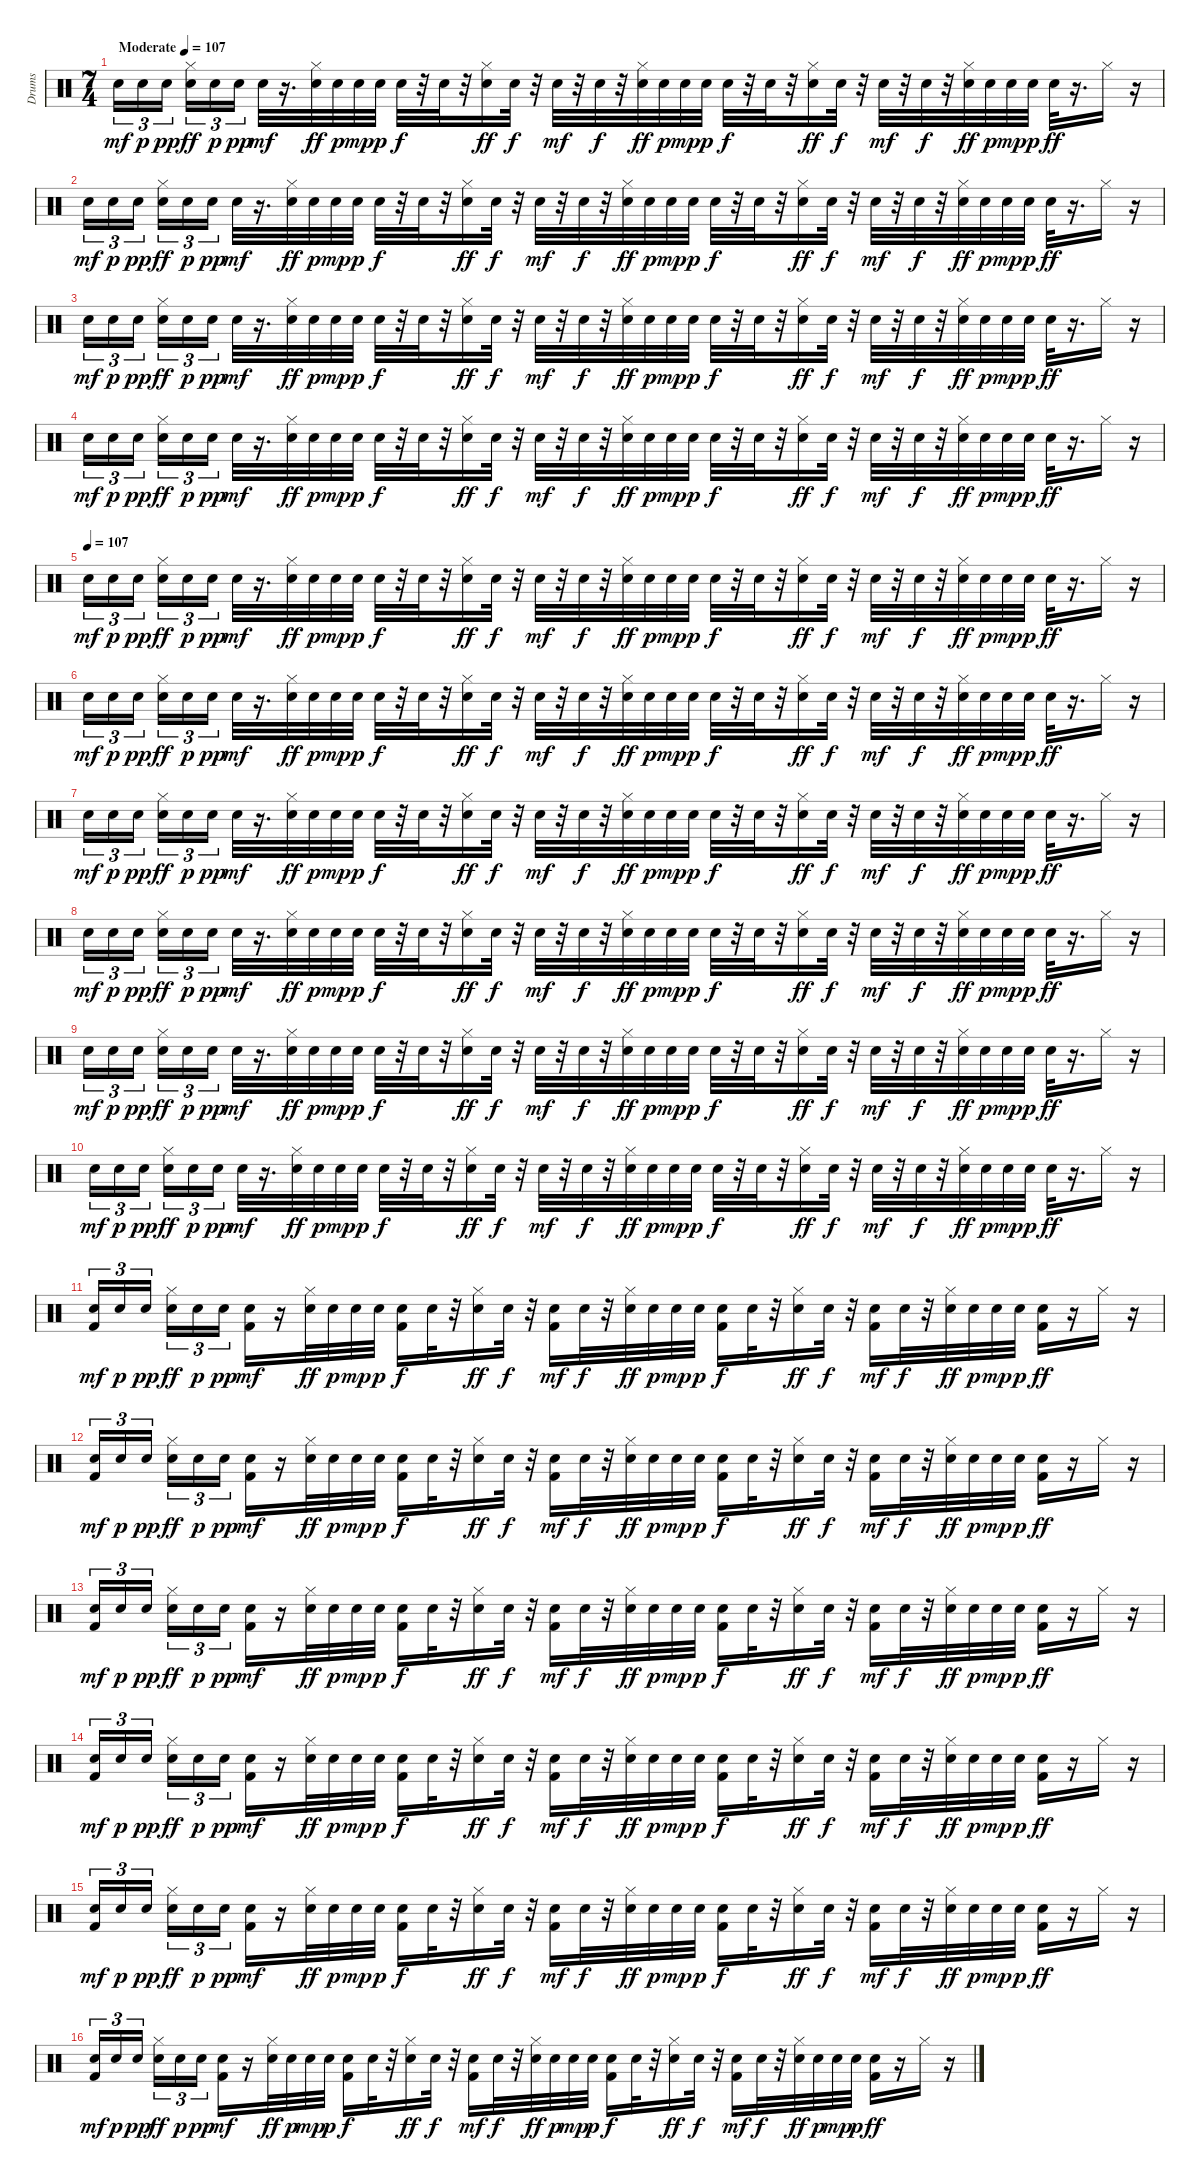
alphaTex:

\track ("Drums" "Drums") {instrument percussion}
\staff {score}
\articulation defaults
\ts (7 4)
\tempo (107 "Moderate")
\clef neutral
\ks c "Snare (hit) 2".16{tu (3 2) dy mf volume 0} "Snare (hit) 2".16{tu (3 2) dy p} "Snare (hit) 2".16{tu (3 2) dy pp beam splitsecondary}
("Snare (hit) 2" "Hi-Hat (closed)").16{tu (3 2) dy ff} "Snare (hit) 2".16{tu (3 2) dy p volume 0} "Snare (hit) 2".16{tu (3 2) dy pp} "Snare (hit) 2".32{dy mf} r.16{d} ("Snare (hit) 2" "Hi-Hat (closed)").32{dy ff volume 0} "Snare (hit) 2".32{dy p} "Snare (hit) 2".32{dy mp volume 0} "Snare (hit) 2".32{dy p} "Snare (hit) 2".32{dy f} r.32 "Snare (hit) 2".32{volume 0} r.32 ("Snare (hit) 2" "Hi-Hat (closed)").16{dy ff} "Snare (hit) 2".32{dy f volume 1} r.32 "Snare (hit) 2".32{dy mf} r.32 "Snare (hit) 2".32{dy f} r.32 ("Snare (hit) 2" "Hi-Hat (closed)").32{dy ff volume 1} "Snare (hit) 2".32{dy p} "Snare (hit) 2".32{dy mp} "Snare (hit) 2".32{dy p volume 1} "Snare (hit) 2".32{dy f} r.32 "Snare (hit) 2".32 r.32 ("Snare (hit) 2" "Hi-Hat (closed)").16{dy ff volume 1} "Snare (hit) 2".32{dy f} r.32 "Snare (hit) 2".32{dy mf volume 1} r.32 "Snare (hit) 2".32{dy f} r.32 ("Snare (hit) 2" "Hi-Hat (closed)").32{dy ff volume 1} "Snare (hit) 2".32{dy p} "Snare (hit) 2".32{dy mp} "Snare (hit) 2".32{dy p} "Snare (hit) 2".32{dy ff} r.16{d} "Hi-Hat (closed)".16{volume 1} r.16 |
"Snare (hit) 2".16{tu (3 2) dy mf volume 2} "Snare (hit) 2".16{tu (3 2) dy p volume 2} "Snare (hit) 2".16{tu (3 2) dy pp beam splitsecondary} ("Snare (hit) 2" "Hi-Hat (closed)").16{tu (3 2) dy ff} "Snare (hit) 2".16{tu (3 2) dy p} "Snare (hit) 2".16{tu (3 2) dy pp volume 2} "Snare (hit) 2".32{dy mf} r.16{d} ("Snare (hit) 2" "Hi-Hat (closed)").32{dy ff volume 2} "Snare (hit) 2".32{dy p} "Snare (hit) 2".32{dy mp} "Snare (hit) 2".32{dy p volume 2} "Snare (hit) 2".32{dy f} r.32 "Snare (hit) 2".32 r.32 ("Snare (hit) 2" "Hi-Hat (closed)").16{dy ff volume 2} "Snare (hit) 2".32{dy f} r.32 "Snare (hit) 2".32{dy mf volume 2} r.32 "Snare (hit) 2".32{dy f} r.32 ("Snare (hit) 2" "Hi-Hat (closed)").32{dy ff volume 2} "Snare (hit) 2".32{dy p} "Snare (hit) 2".32{dy mp} "Snare (hit) 2".32{dy p} "Snare (hit) 2".32{dy f volume 2} r.32 "Snare (hit) 2".32 r.32 ("Snare (hit) 2" "Hi-Hat (closed)").16{dy ff} "Snare (hit) 2".32{dy f volume 3} r.32 "Snare (hit) 2".32{dy mf} r.32 "Snare (hit) 2".32{dy f volume 3} r.32 ("Snare (hit) 2" "Hi-Hat (closed)").32{dy ff} "Snare (hit) 2".32{dy p volume 3} "Snare (hit) 2".32{dy mp} "Snare (hit) 2".32{dy p} "Snare (hit) 2".32{dy ff} r.16{d} "Hi-Hat (closed)".16{volume 3} r.16 |
"Snare (hit) 2".16{tu (3 2) dy mf volume 3} "Snare (hit) 2".16{tu (3 2) dy p} "Snare (hit) 2".16{tu (3 2) dy pp volume 3 beam splitsecondary} ("Snare (hit) 2" "Hi-Hat (closed)").16{tu (3 2) dy ff} "Snare (hit) 2".16{tu (3 2) dy p} "Snare (hit) 2".16{tu (3 2) dy pp volume 3} "Snare (hit) 2".32{dy mf} r.16{d} ("Snare (hit) 2" "Hi-Hat (closed)").32{dy ff volume 4} "Snare (hit) 2".32{dy p} "Snare (hit) 2".32{dy mp} "Snare (hit) 2".32{dy p} "Snare (hit) 2".32{dy f volume 4} r.32 "Snare (hit) 2".32 r.32 ("Snare (hit) 2" "Hi-Hat (closed)").16{dy ff volume 4} "Snare (hit) 2".32{dy f} r.32 "Snare (hit) 2".32{dy mf} r.32 "Snare (hit) 2".32{dy f volume 4} r.32 ("Snare (hit) 2" "Hi-Hat (closed)").32{dy ff} "Snare (hit) 2".32{dy p volume 4} "Snare (hit) 2".32{dy mp} "Snare (hit) 2".32{dy p} "Snare (hit) 2".32{dy f} r.32 "Snare (hit) 2".32{volume 4} r.32 ("Snare (hit) 2" "Hi-Hat (closed)").16{dy ff} "Snare (hit) 2".32{dy f volume 4} r.32 "Snare (hit) 2".32{dy mf} r.32 "Snare (hit) 2".32{dy f volume 4} r.32 ("Snare (hit) 2" "Hi-Hat (closed)").32{dy ff} "Snare (hit) 2".32{dy p} "Snare (hit) 2".32{dy mp} "Snare (hit) 2".32{dy p volume 4} "Snare (hit) 2".32{dy ff} r.16{d} "Hi-Hat (closed)".16{volume 5} r.16 |
"Snare (hit) 2".16{tu (3 2) dy mf volume 5} "Snare (hit) 2".16{tu (3 2) dy p} "Snare (hit) 2".16{tu (3 2) dy pp beam splitsecondary} ("Snare (hit) 2" "Hi-Hat (closed)").16{tu (3 2) dy ff volume 5} "Snare (hit) 2".16{tu (3 2) dy p} "Snare (hit) 2".16{tu (3 2) dy pp} "Snare (hit) 2".32{dy mf volume 5} r.16{d} ("Snare (hit) 2" "Hi-Hat (closed)").32{dy ff} "Snare (hit) 2".32{dy p volume 5} "Snare (hit) 2".32{dy mp} "Snare (hit) 2".32{dy p} "Snare (hit) 2".32{dy f} r.32 "Snare (hit) 2".32{volume 5} r.32 ("Snare (hit) 2" "Hi-Hat (closed)").16{dy ff} "Snare (hit) 2".32{dy f volume 5} r.32 "Snare (hit) 2".32{dy mf} r.32 "Snare (hit) 2".32{dy f volume 6} r.32 ("Snare (hit) 2" "Hi-Hat (closed)").32{dy ff} "Snare (hit) 2".32{dy p} "Snare (hit) 2".32{dy mp volume 6} "Snare (hit) 2".32{dy p} "Snare (hit) 2".32{dy f} r.32 "Snare (hit) 2".32 r.32 ("Snare (hit) 2" "Hi-Hat (closed)").16{dy ff volume 6} "Snare (hit) 2".32{dy f} r.32 "Snare (hit) 2".32{dy mf volume 6} r.32 "Snare (hit) 2".32{dy f} r.32 ("Snare (hit) 2" "Hi-Hat (closed)").32{dy ff volume 6} "Snare (hit) 2".32{dy p} "Snare (hit) 2".32{dy mp} "Snare (hit) 2".32{dy p} "Snare (hit) 2".32{dy ff volume 6} r.16{d} "Hi-Hat (closed)".16{volume 6} r.16 |
\tempo (107)
"Snare (hit) 2".16{tu (3 2) dy mf} "Snare (hit) 2".16{tu (3 2) dy p volume 6} "Snare (hit) 2".16{tu (3 2) dy pp beam splitsecondary} ("Snare (hit) 2" "Hi-Hat (closed)").16{tu (3 2) dy ff} "Snare (hit) 2".16{tu (3 2) dy p volume 6} "Snare (hit) 2".16{tu (3 2) dy pp} "Snare (hit) 2".32{dy mf} r.16{d} ("Snare (hit) 2" "Hi-Hat (closed)").32{dy ff volume 7} "Snare (hit) 2".32{dy p} "Snare (hit) 2".32{dy mp volume 7} "Snare (hit) 2".32{dy p} "Snare (hit) 2".32{dy f} r.32 "Snare (hit) 2".32{volume 7} r.32 ("Snare (hit) 2" "Hi-Hat (closed)").16{dy ff} "Snare (hit) 2".32{dy f volume 7} r.32 "Snare (hit) 2".32{dy mf} r.32 "Snare (hit) 2".32{dy f} r.32 ("Snare (hit) 2" "Hi-Hat (closed)").32{dy ff volume 7} "Snare (hit) 2".32{dy p} "Snare (hit) 2".32{dy mp} "Snare (hit) 2".32{dy p volume 7} "Snare (hit) 2".32{dy f} r.32 "Snare (hit) 2".32 r.32 ("Snare (hit) 2" "Hi-Hat (closed)").16{dy ff volume 7} "Snare (hit) 2".32{dy f} r.32 "Snare (hit) 2".32{dy mf volume 8} r.32 "Snare (hit) 2".32{dy f} r.32 ("Snare (hit) 2" "Hi-Hat (closed)").32{dy ff volume 8} "Snare (hit) 2".32{dy p} "Snare (hit) 2".32{dy mp} "Snare (hit) 2".32{dy p} "Snare (hit) 2".32{dy ff} r.16{d} "Hi-Hat (closed)".16{volume 8} r.16 |
"Snare (hit) 2".16{tu (3 2) dy mf volume 8} "Snare (hit) 2".16{tu (3 2) dy p volume 8} "Snare (hit) 2".16{tu (3 2) dy pp beam splitsecondary} ("Snare (hit) 2" "Hi-Hat (closed)").16{tu (3 2) dy ff} "Snare (hit) 2".16{tu (3 2) dy p} "Snare (hit) 2".16{tu (3 2) dy pp volume 8} "Snare (hit) 2".32{dy mf} r.16{d} ("Snare (hit) 2" "Hi-Hat (closed)").32{dy ff volume 8} "Snare (hit) 2".32{dy p} "Snare (hit) 2".32{dy mp} "Snare (hit) 2".32{dy p volume 8} "Snare (hit) 2".32{dy f} r.32 "Snare (hit) 2".32 r.32 ("Snare (hit) 2" "Hi-Hat (closed)").16{dy ff volume 8} "Snare (hit) 2".32{dy f} r.32 "Snare (hit) 2".32{dy mf volume 9} r.32 "Snare (hit) 2".32{dy f} r.32 ("Snare (hit) 2" "Hi-Hat (closed)").32{dy ff volume 9} "Snare (hit) 2".32{dy p} "Snare (hit) 2".32{dy mp} "Snare (hit) 2".32{dy p} "Snare (hit) 2".32{dy f volume 9} r.32 "Snare (hit) 2".32 r.32 ("Snare (hit) 2" "Hi-Hat (closed)").16{dy ff} "Snare (hit) 2".32{dy f volume 9} r.32 "Snare (hit) 2".32{dy mf} r.32 "Snare (hit) 2".32{dy f volume 9} r.32 ("Snare (hit) 2" "Hi-Hat (closed)").32{dy ff} "Snare (hit) 2".32{dy p} "Snare (hit) 2".32{dy mp volume 9} "Snare (hit) 2".32{dy p} "Snare (hit) 2".32{dy ff} r.16{d} "Hi-Hat (closed)".16{volume 9} r.16 |
"Snare (hit) 2".16{tu (3 2) dy mf volume 10} "Snare (hit) 2".16{tu (3 2) dy p} "Snare (hit) 2".16{tu (3 2) dy pp volume 10 beam splitsecondary} ("Snare (hit) 2" "Hi-Hat (closed)").16{tu (3 2) dy ff} "Snare (hit) 2".16{tu (3 2) dy p} "Snare (hit) 2".16{tu (3 2) dy pp volume 10} "Snare (hit) 2".32{dy mf} r.16{d} ("Snare (hit) 2" "Hi-Hat (closed)").32{dy ff volume 10} "Snare (hit) 2".32{dy p} "Snare (hit) 2".32{dy mp} "Snare (hit) 2".32{dy p} "Snare (hit) 2".32{dy f volume 10} r.32 "Snare (hit) 2".32 r.32 ("Snare (hit) 2" "Hi-Hat (closed)").16{dy ff volume 10} "Snare (hit) 2".32{dy f} r.32 "Snare (hit) 2".32{dy mf} r.32 "Snare (hit) 2".32{dy f volume 10} r.32 ("Snare (hit) 2" "Hi-Hat (closed)").32{dy ff} "Snare (hit) 2".32{dy p volume 10} "Snare (hit) 2".32{dy mp} "Snare (hit) 2".32{dy p} "Snare (hit) 2".32{dy f} r.32 "Snare (hit) 2".32{volume 10} r.32 ("Snare (hit) 2" "Hi-Hat (closed)").16{dy ff} "Snare (hit) 2".32{dy f volume 11} r.32 "Snare (hit) 2".32{dy mf} r.32 "Snare (hit) 2".32{dy f volume 11} r.32 ("Snare (hit) 2" "Hi-Hat (closed)").32{dy ff} "Snare (hit) 2".32{dy p} "Snare (hit) 2".32{dy mp} "Snare (hit) 2".32{dy p volume 11} "Snare (hit) 2".32{dy ff} r.16{d} "Hi-Hat (closed)".16{volume 11} r.16 |
"Snare (hit) 2".16{tu (3 2) dy mf volume 11} "Snare (hit) 2".16{tu (3 2) dy p} "Snare (hit) 2".16{tu (3 2) dy pp beam splitsecondary} ("Snare (hit) 2" "Hi-Hat (closed)").16{tu (3 2) dy ff volume 11} "Snare (hit) 2".16{tu (3 2) dy p} "Snare (hit) 2".16{tu (3 2) dy pp} "Snare (hit) 2".32{dy mf volume 11} r.16{d} ("Snare (hit) 2" "Hi-Hat (closed)").32{dy ff} "Snare (hit) 2".32{dy p volume 12} "Snare (hit) 2".32{dy mp} "Snare (hit) 2".32{dy p} "Snare (hit) 2".32{dy f} r.32 "Snare (hit) 2".32{volume 12} r.32 ("Snare (hit) 2" "Hi-Hat (closed)").16{dy ff} "Snare (hit) 2".32{dy f volume 12} r.32 "Snare (hit) 2".32{dy mf} r.32 "Snare (hit) 2".32{dy f volume 12} r.32 ("Snare (hit) 2" "Hi-Hat (closed)").32{dy ff} "Snare (hit) 2".32{dy p} "Snare (hit) 2".32{dy mp volume 12} "Snare (hit) 2".32{dy p} "Snare (hit) 2".32{dy f} r.32 "Snare (hit) 2".32 r.32 ("Snare (hit) 2" "Hi-Hat (closed)").16{dy ff volume 12} "Snare (hit) 2".32{dy f} r.32 "Snare (hit) 2".32{dy mf volume 12} r.32 "Snare (hit) 2".32{dy f} r.32 ("Snare (hit) 2" "Hi-Hat (closed)").32{dy ff volume 12} "Snare (hit) 2".32{dy p} "Snare (hit) 2".32{dy mp} "Snare (hit) 2".32{dy p} "Snare (hit) 2".32{dy ff volume 12} r.16{d} "Hi-Hat (closed)".16{volume 13} r.16 |
"Snare (hit) 2".16{tu (3 2) dy mf} "Snare (hit) 2".16{tu (3 2) dy p volume 13} "Snare (hit) 2".16{tu (3 2) dy pp beam splitsecondary} ("Snare (hit) 2" "Hi-Hat (closed)").16{tu (3 2) dy ff} "Snare (hit) 2".16{tu (3 2) dy p volume 13} "Snare (hit) 2".16{tu (3 2) dy pp} "Snare (hit) 2".32{dy mf} r.16{d} ("Snare (hit) 2" "Hi-Hat (closed)").32{dy ff volume 13} "Snare (hit) 2".32{dy p} "Snare (hit) 2".32{dy mp volume 13} "Snare (hit) 2".32{dy p} "Snare (hit) 2".32{dy f} r.32 "Snare (hit) 2".32{volume 13} r.32 ("Snare (hit) 2" "Hi-Hat (closed)").16{dy ff} "Snare (hit) 2".32{dy f} r.32 "Snare (hit) 2".32{dy mf volume 13} r.32 "Snare (hit) 2".32{dy f} r.32 ("Snare (hit) 2" "Hi-Hat (closed)").32{dy ff volume 14} "Snare (hit) 2".32{dy p} "Snare (hit) 2".32{dy mp} "Snare (hit) 2".32{dy p volume 14} "Snare (hit) 2".32{dy f} r.32 "Snare (hit) 2".32 r.32 ("Snare (hit) 2" "Hi-Hat (closed)").16{dy ff volume 14} "Snare (hit) 2".32{dy f} r.32 "Snare (hit) 2".32{dy mf volume 14} r.32 "Snare (hit) 2".32{dy f} r.32 ("Snare (hit) 2" "Hi-Hat (closed)").32{dy ff} "Snare (hit) 2".32{dy p volume 14} "Snare (hit) 2".32{dy mp} "Snare (hit) 2".32{dy p} "Snare (hit) 2".32{dy ff} r.16{d} "Hi-Hat (closed)".16{volume 14} r.16 |
"Snare (hit) 2".16{tu (3 2) dy mf volume 14} "Snare (hit) 2".16{tu (3 2) dy p volume 14} "Snare (hit) 2".16{tu (3 2) dy pp beam splitsecondary} ("Snare (hit) 2" "Hi-Hat (closed)").16{tu (3 2) dy ff} "Snare (hit) 2".16{tu (3 2) dy p} "Snare (hit) 2".16{tu (3 2) dy pp volume 14} "Snare (hit) 2".32{dy mf} r.16{d} ("Snare (hit) 2" "Hi-Hat (closed)").32{dy ff volume 15} "Snare (hit) 2".32{dy p} "Snare (hit) 2".32{dy mp} "Snare (hit) 2".32{dy p volume 15} "Snare (hit) 2".32{dy f} r.32 "Snare (hit) 2".32 r.32 ("Snare (hit) 2" "Hi-Hat (closed)").16{dy ff volume 15} "Snare (hit) 2".32{dy f} r.32 "Snare (hit) 2".32{dy mf volume 15} r.32 "Snare (hit) 2".32{dy f} r.32 ("Snare (hit) 2" "Hi-Hat (closed)").32{dy ff volume 15} "Snare (hit) 2".32{dy p} "Snare (hit) 2".32{dy mp} "Snare (hit) 2".32{dy p} "Snare (hit) 2".32{dy f volume 15} r.32 "Snare (hit) 2".32 r.32 ("Snare (hit) 2" "Hi-Hat (closed)").16{dy ff} "Snare (hit) 2".32{dy f volume 15} r.32 "Snare (hit) 2".32{dy mf} r.32 "Snare (hit) 2".32{dy f volume 16} r.32 ("Snare (hit) 2" "Hi-Hat (closed)").32{dy ff} "Snare (hit) 2".32{dy p} "Snare (hit) 2".32{dy mp volume 16} "Snare (hit) 2".32{dy p} "Snare (hit) 2".32{dy ff} r.16{d} "Hi-Hat (closed)".16{volume 16} r.16 |
("Kick (hit) 2" "Snare (hit) 2").16{tu (3 2) dy mf volume 16} "Snare (hit) 2".16{tu (3 2) dy p} "Snare (hit) 2".16{tu (3 2) dy pp beam splitsecondary} ("Snare (hit) 2" "Hi-Hat (closed)").16{tu (3 2) dy ff} "Snare (hit) 2".16{tu (3 2) dy p} "Snare (hit) 2".16{tu (3 2) dy pp} ("Kick (hit) 2" "Snare (hit) 2").16{dy mf} r.16 ("Snare (hit) 2" "Hi-Hat (closed)").32{dy ff} "Snare (hit) 2".32{dy p} "Snare (hit) 2".32{dy mp} "Snare (hit) 2".32{dy p} ("Kick (hit) 2" "Snare (hit) 2").16{dy f} "Snare (hit) 2".32 r.32 ("Snare (hit) 2" "Hi-Hat (closed)").16{dy ff} "Snare (hit) 2".32{dy f} r.32 ("Kick (hit) 2" "Snare (hit) 2").16{dy mf} "Snare (hit) 2".32{dy f} r.32 ("Snare (hit) 2" "Hi-Hat (closed)").32{dy ff} "Snare (hit) 2".32{dy p} "Snare (hit) 2".32{dy mp} "Snare (hit) 2".32{dy p} ("Kick (hit) 2" "Snare (hit) 2").16{dy f} "Snare (hit) 2".32 r.32 ("Snare (hit) 2" "Hi-Hat (closed)").16{dy ff} "Snare (hit) 2".32{dy f} r.32 ("Kick (hit) 2" "Snare (hit) 2").16{dy mf} "Snare (hit) 2".32{dy f} r.32 ("Snare (hit) 2" "Hi-Hat (closed)").32{dy ff} "Snare (hit) 2".32{dy p} "Snare (hit) 2".32{dy mp} "Snare (hit) 2".32{dy p} ("Kick (hit) 2" "Snare (hit) 2").16{dy ff} r.16 "Hi-Hat (closed)".16 r.16 |
("Kick (hit) 2" "Snare (hit) 2").16{tu (3 2) dy mf} "Snare (hit) 2".16{tu (3 2) dy p} "Snare (hit) 2".16{tu (3 2) dy pp beam splitsecondary} ("Snare (hit) 2" "Hi-Hat (closed)").16{tu (3 2) dy ff} "Snare (hit) 2".16{tu (3 2) dy p} "Snare (hit) 2".16{tu (3 2) dy pp} ("Kick (hit) 2" "Snare (hit) 2").16{dy mf} r.16 ("Snare (hit) 2" "Hi-Hat (closed)").32{dy ff} "Snare (hit) 2".32{dy p} "Snare (hit) 2".32{dy mp} "Snare (hit) 2".32{dy p} ("Kick (hit) 2" "Snare (hit) 2").16{dy f} "Snare (hit) 2".32 r.32 ("Snare (hit) 2" "Hi-Hat (closed)").16{dy ff} "Snare (hit) 2".32{dy f} r.32 ("Kick (hit) 2" "Snare (hit) 2").16{dy mf} "Snare (hit) 2".32{dy f} r.32 ("Snare (hit) 2" "Hi-Hat (closed)").32{dy ff} "Snare (hit) 2".32{dy p} "Snare (hit) 2".32{dy mp} "Snare (hit) 2".32{dy p} ("Kick (hit) 2" "Snare (hit) 2").16{dy f} "Snare (hit) 2".32 r.32 ("Snare (hit) 2" "Hi-Hat (closed)").16{dy ff} "Snare (hit) 2".32{dy f} r.32 ("Kick (hit) 2" "Snare (hit) 2").16{dy mf} "Snare (hit) 2".32{dy f} r.32 ("Snare (hit) 2" "Hi-Hat (closed)").32{dy ff} "Snare (hit) 2".32{dy p} "Snare (hit) 2".32{dy mp} "Snare (hit) 2".32{dy p} ("Kick (hit) 2" "Snare (hit) 2").16{dy ff} r.16 "Hi-Hat (closed)".16 r.16 |
("Kick (hit) 2" "Snare (hit) 2").16{tu (3 2) dy mf} "Snare (hit) 2".16{tu (3 2) dy p} "Snare (hit) 2".16{tu (3 2) dy pp beam splitsecondary} ("Snare (hit) 2" "Hi-Hat (closed)").16{tu (3 2) dy ff} "Snare (hit) 2".16{tu (3 2) dy p} "Snare (hit) 2".16{tu (3 2) dy pp} ("Kick (hit) 2" "Snare (hit) 2").16{dy mf} r.16 ("Snare (hit) 2" "Hi-Hat (closed)").32{dy ff} "Snare (hit) 2".32{dy p} "Snare (hit) 2".32{dy mp} "Snare (hit) 2".32{dy p} ("Kick (hit) 2" "Snare (hit) 2").16{dy f} "Snare (hit) 2".32 r.32 ("Snare (hit) 2" "Hi-Hat (closed)").16{dy ff} "Snare (hit) 2".32{dy f} r.32 ("Kick (hit) 2" "Snare (hit) 2").16{dy mf} "Snare (hit) 2".32{dy f} r.32 ("Snare (hit) 2" "Hi-Hat (closed)").32{dy ff} "Snare (hit) 2".32{dy p} "Snare (hit) 2".32{dy mp} "Snare (hit) 2".32{dy p} ("Kick (hit) 2" "Snare (hit) 2").16{dy f} "Snare (hit) 2".32 r.32 ("Snare (hit) 2" "Hi-Hat (closed)").16{dy ff} "Snare (hit) 2".32{dy f} r.32 ("Kick (hit) 2" "Snare (hit) 2").16{dy mf} "Snare (hit) 2".32{dy f} r.32 ("Snare (hit) 2" "Hi-Hat (closed)").32{dy ff} "Snare (hit) 2".32{dy p} "Snare (hit) 2".32{dy mp} "Snare (hit) 2".32{dy p} ("Kick (hit) 2" "Snare (hit) 2").16{dy ff} r.16 "Hi-Hat (closed)".16 r.16 |
("Kick (hit) 2" "Snare (hit) 2").16{tu (3 2) dy mf} "Snare (hit) 2".16{tu (3 2) dy p} "Snare (hit) 2".16{tu (3 2) dy pp beam splitsecondary} ("Snare (hit) 2" "Hi-Hat (closed)").16{tu (3 2) dy ff} "Snare (hit) 2".16{tu (3 2) dy p} "Snare (hit) 2".16{tu (3 2) dy pp} ("Kick (hit) 2" "Snare (hit) 2").16{dy mf} r.16 ("Snare (hit) 2" "Hi-Hat (closed)").32{dy ff} "Snare (hit) 2".32{dy p} "Snare (hit) 2".32{dy mp} "Snare (hit) 2".32{dy p} ("Kick (hit) 2" "Snare (hit) 2").16{dy f} "Snare (hit) 2".32 r.32 ("Snare (hit) 2" "Hi-Hat (closed)").16{dy ff} "Snare (hit) 2".32{dy f} r.32 ("Kick (hit) 2" "Snare (hit) 2").16{dy mf} "Snare (hit) 2".32{dy f} r.32 ("Snare (hit) 2" "Hi-Hat (closed)").32{dy ff} "Snare (hit) 2".32{dy p} "Snare (hit) 2".32{dy mp} "Snare (hit) 2".32{dy p} ("Kick (hit) 2" "Snare (hit) 2").16{dy f} "Snare (hit) 2".32 r.32 ("Snare (hit) 2" "Hi-Hat (closed)").16{dy ff} "Snare (hit) 2".32{dy f} r.32 ("Kick (hit) 2" "Snare (hit) 2").16{dy mf} "Snare (hit) 2".32{dy f} r.32 ("Snare (hit) 2" "Hi-Hat (closed)").32{dy ff} "Snare (hit) 2".32{dy p} "Snare (hit) 2".32{dy mp} "Snare (hit) 2".32{dy p} ("Kick (hit) 2" "Snare (hit) 2").16{dy ff} r.16 "Hi-Hat (closed)".16 r.16 |
("Kick (hit) 2" "Snare (hit) 2").16{tu (3 2) dy mf} "Snare (hit) 2".16{tu (3 2) dy p} "Snare (hit) 2".16{tu (3 2) dy pp beam splitsecondary} ("Snare (hit) 2" "Hi-Hat (closed)").16{tu (3 2) dy ff} "Snare (hit) 2".16{tu (3 2) dy p} "Snare (hit) 2".16{tu (3 2) dy pp} ("Kick (hit) 2" "Snare (hit) 2").16{dy mf} r.16 ("Snare (hit) 2" "Hi-Hat (closed)").32{dy ff} "Snare (hit) 2".32{dy p} "Snare (hit) 2".32{dy mp} "Snare (hit) 2".32{dy p} ("Kick (hit) 2" "Snare (hit) 2").16{dy f} "Snare (hit) 2".32 r.32 ("Snare (hit) 2" "Hi-Hat (closed)").16{dy ff} "Snare (hit) 2".32{dy f} r.32 ("Kick (hit) 2" "Snare (hit) 2").16{dy mf} "Snare (hit) 2".32{dy f} r.32 ("Snare (hit) 2" "Hi-Hat (closed)").32{dy ff} "Snare (hit) 2".32{dy p} "Snare (hit) 2".32{dy mp} "Snare (hit) 2".32{dy p} ("Kick (hit) 2" "Snare (hit) 2").16{dy f} "Snare (hit) 2".32 r.32 ("Snare (hit) 2" "Hi-Hat (closed)").16{dy ff} "Snare (hit) 2".32{dy f} r.32 ("Kick (hit) 2" "Snare (hit) 2").16{dy mf} "Snare (hit) 2".32{dy f} r.32 ("Snare (hit) 2" "Hi-Hat (closed)").32{dy ff} "Snare (hit) 2".32{dy p} "Snare (hit) 2".32{dy mp} "Snare (hit) 2".32{dy p} ("Kick (hit) 2" "Snare (hit) 2").16{dy ff} r.16 "Hi-Hat (closed)".16 r.16 |
("Kick (hit) 2" "Snare (hit) 2").16{tu (3 2) dy mf} "Snare (hit) 2".16{tu (3 2) dy p} "Snare (hit) 2".16{tu (3 2) dy pp beam splitsecondary} ("Snare (hit) 2" "Hi-Hat (closed)").16{tu (3 2) dy ff} "Snare (hit) 2".16{tu (3 2) dy p} "Snare (hit) 2".16{tu (3 2) dy pp} ("Kick (hit) 2" "Snare (hit) 2").16{dy mf} r.16 ("Snare (hit) 2" "Hi-Hat (closed)").32{dy ff} "Snare (hit) 2".32{dy p} "Snare (hit) 2".32{dy mp} "Snare (hit) 2".32{dy p} ("Kick (hit) 2" "Snare (hit) 2").16{dy f} "Snare (hit) 2".32 r.32 ("Snare (hit) 2" "Hi-Hat (closed)").16{dy ff} "Snare (hit) 2".32{dy f} r.32 ("Kick (hit) 2" "Snare (hit) 2").16{dy mf} "Snare (hit) 2".32{dy f} r.32 ("Snare (hit) 2" "Hi-Hat (closed)").32{dy ff} "Snare (hit) 2".32{dy p} "Snare (hit) 2".32{dy mp} "Snare (hit) 2".32{dy p} ("Kick (hit) 2" "Snare (hit) 2").16{dy f} "Snare (hit) 2".32 r.32 ("Snare (hit) 2" "Hi-Hat (closed)").16{dy ff} "Snare (hit) 2".32{dy f} r.32 ("Kick (hit) 2" "Snare (hit) 2").16{dy mf} "Snare (hit) 2".32{dy f} r.32 ("Snare (hit) 2" "Hi-Hat (closed)").32{dy ff} "Snare (hit) 2".32{dy p} "Snare (hit) 2".32{dy mp} "Snare (hit) 2".32{dy p} ("Kick (hit) 2" "Snare (hit) 2").16{dy ff} r.16 "Hi-Hat (closed)".16 r.16
